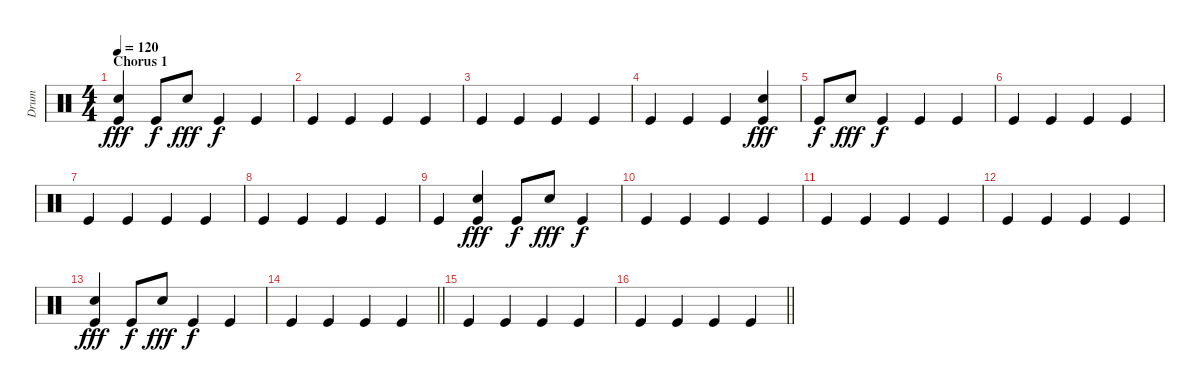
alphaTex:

\track ("Drum" "Drum") {instrument percussion}
\staff {score}
\articulation defaults
\ts (4 4)
\section ("" "Chorus 1")
\tempo 120
\clef neutral
\ks c
("Electric Snare (hit)" "Kick (hit)").4{dy fff} "Kick (hit)".8{dy f} "Electric Snare (hit)".8{dy fff} "Kick (hit)".4{dy f} "Kick (hit)".4 |
"Kick (hit)".4 "Kick (hit)".4 "Kick (hit)".4 "Kick (hit)".4 |
"Kick (hit)".4 "Kick (hit)".4 "Kick (hit)".4 "Kick (hit)".4 |
"Kick (hit)".4 "Kick (hit)".4 "Kick (hit)".4 ("Electric Snare (hit)" "Kick (hit)").4{dy fff} |
"Kick (hit)".8{dy f} "Electric Snare (hit)".8{dy fff} "Kick (hit)".4{dy f} "Kick (hit)".4 "Kick (hit)".4 |
"Kick (hit)".4 "Kick (hit)".4 "Kick (hit)".4 "Kick (hit)".4 |
"Kick (hit)".4 "Kick (hit)".4 "Kick (hit)".4 "Kick (hit)".4 |
"Kick (hit)".4 "Kick (hit)".4 "Kick (hit)".4 "Kick (hit)".4 |
"Kick (hit)".4 ("Electric Snare (hit)" "Kick (hit)").4{dy fff} "Kick (hit)".8{dy f} "Electric Snare (hit)".8{dy fff} "Kick (hit)".4{dy f} |
"Kick (hit)".4 "Kick (hit)".4 "Kick (hit)".4 "Kick (hit)".4 |
"Kick (hit)".4 "Kick (hit)".4 "Kick (hit)".4 "Kick (hit)".4 |
"Kick (hit)".4 "Kick (hit)".4 "Kick (hit)".4 "Kick (hit)".4 |
("Electric Snare (hit)" "Kick (hit)").4{dy fff} "Kick (hit)".8{dy f} "Electric Snare (hit)".8{dy fff} "Kick (hit)".4{dy f} "Kick (hit)".4 |
\barLineRight lightlight "Kick (hit)".4 "Kick (hit)".4 "Kick (hit)".4 "Kick (hit)".4
|
\section ("" "")
"Kick (hit)".4 "Kick (hit)".4 "Kick (hit)".4 "Kick (hit)".4 |
\barLineRight lightlight "Kick (hit)".4 "Kick (hit)".4 "Kick (hit)".4 "Kick (hit)".4
